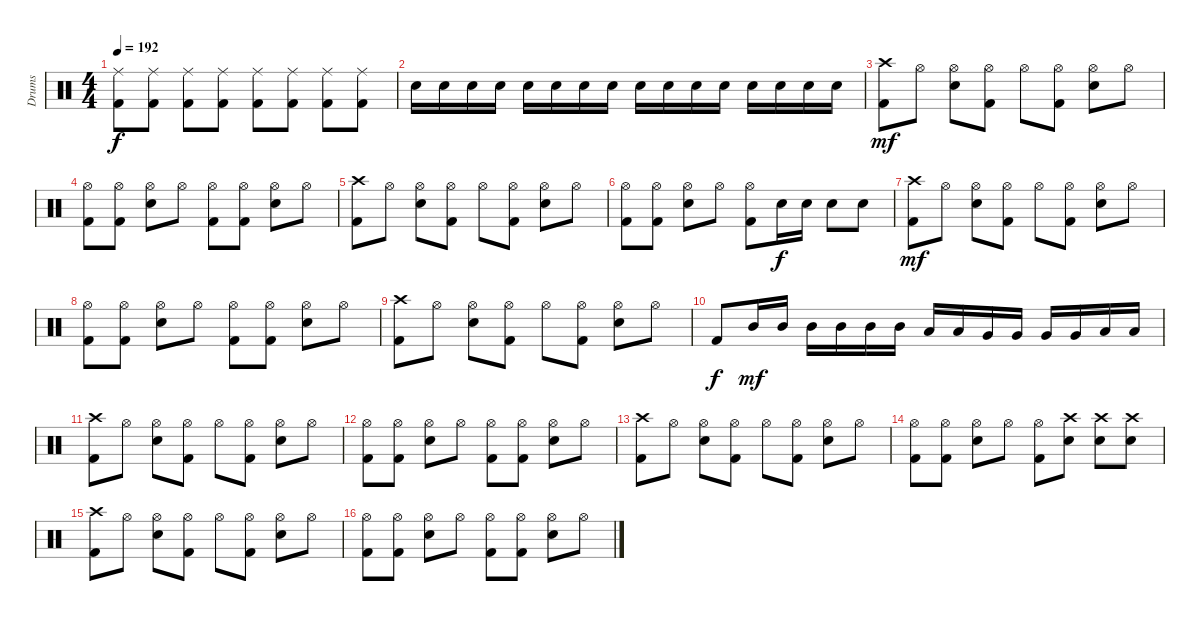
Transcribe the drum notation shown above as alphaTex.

\track ("Drums" "Drums") {instrument percussion}
\staff {score}
\articulation defaults
\ts (4 4)
\tempo 192
\clef neutral
\ks c
("Ride (middle)" "Kick (hit) 2").8{dy f} ("Ride (middle)" "Kick (hit) 2").8 ("Ride (middle)" "Kick (hit) 2").8 ("Ride (middle)" "Kick (hit) 2").8 ("Ride (middle)" "Kick (hit) 2").8 ("Ride (middle)" "Kick (hit) 2").8 ("Ride (middle)" "Kick (hit) 2").8 ("Ride (middle)" "Kick (hit) 2").8 |
"Snare (hit) 2".16 "Snare (hit) 2".16 "Snare (hit) 2".16 "Snare (hit) 2".16 "Snare (hit) 2".16 "Snare (hit) 2".16 "Snare (hit) 2".16 "Snare (hit) 2".16 "Snare (hit) 2".16 "Snare (hit) 2".16 "Snare (hit) 2".16 "Snare (hit) 2".16 "Snare (hit) 2".16 "Snare (hit) 2".16 "Snare (hit) 2".16 "Snare (hit) 2".16 |
("Crash high (hit)" "Kick (hit) 2").8{dy mf} "Hi-Hat (open)".8 ("Hi-Hat (open)" "Snare (hit) 2").8 ("Hi-Hat (open)" "Kick (hit) 2").8 "Hi-Hat (open)".8 ("Hi-Hat (open)" "Kick (hit) 2").8 ("Hi-Hat (open)" "Snare (hit) 2").8 "Hi-Hat (open)".8 |
("Hi-Hat (open)" "Kick (hit) 2").8 ("Hi-Hat (open)" "Kick (hit) 2").8 ("Hi-Hat (open)" "Snare (hit) 2").8 "Hi-Hat (open)".8 ("Hi-Hat (open)" "Kick (hit) 2").8 ("Hi-Hat (open)" "Kick (hit) 2").8 ("Hi-Hat (open)" "Snare (hit) 2").8 "Hi-Hat (open)".8 |
("Crash high (hit)" "Kick (hit) 2").8 "Hi-Hat (open)".8 ("Hi-Hat (open)" "Snare (hit) 2").8 ("Hi-Hat (open)" "Kick (hit) 2").8 "Hi-Hat (open)".8 ("Hi-Hat (open)" "Kick (hit) 2").8 ("Hi-Hat (open)" "Snare (hit) 2").8 "Hi-Hat (open)".8 |
("Hi-Hat (open)" "Kick (hit) 2").8 ("Hi-Hat (open)" "Kick (hit) 2").8 ("Hi-Hat (open)" "Snare (hit) 2").8 "Hi-Hat (open)".8 ("Hi-Hat (open)" "Kick (hit) 2").8 "Snare (hit) 2".16{dy f} "Snare (hit) 2".16 "Snare (hit) 2".8 "Snare (hit) 2".8 |
("Crash high (hit)" "Kick (hit) 2").8{dy mf} "Hi-Hat (open)".8 ("Hi-Hat (open)" "Snare (hit) 2").8 ("Hi-Hat (open)" "Kick (hit) 2").8 "Hi-Hat (open)".8 ("Hi-Hat (open)" "Kick (hit) 2").8 ("Hi-Hat (open)" "Snare (hit) 2").8 "Hi-Hat (open)".8 |
("Hi-Hat (open)" "Kick (hit) 2").8 ("Hi-Hat (open)" "Kick (hit) 2").8 ("Hi-Hat (open)" "Snare (hit) 2").8 "Hi-Hat (open)".8 ("Hi-Hat (open)" "Kick (hit) 2").8 ("Hi-Hat (open)" "Kick (hit) 2").8 ("Hi-Hat (open)" "Snare (hit) 2").8 "Hi-Hat (open)".8 |
("Crash high (hit)" "Kick (hit) 2").8 "Hi-Hat (open)".8 ("Hi-Hat (open)" "Snare (hit) 2").8 ("Hi-Hat (open)" "Kick (hit) 2").8 "Hi-Hat (open)".8 ("Hi-Hat (open)" "Kick (hit) 2").8 ("Hi-Hat (open)" "Snare (hit) 2").8 "Hi-Hat (open)".8 |
"Kick (hit) 2".8{dy f} "Mid Tom (hit)".16{dy mf} "Mid Tom (hit)".16 "Mid Tom (hit)".16 "Mid Tom (hit)".16 "Mid Tom (hit)".16 "Mid Tom (hit)".16 "Low Tom (hit)".16 "Low Tom (hit)".16 "Very Low Tom (hit)".16 "Very Low Tom (hit)".16 "Very Low Tom (hit)".16 "Very Low Tom (hit)".16 "Low Floor Tom (hit)".16 "Low Floor Tom (hit)".16 |
("Crash high (hit)" "Kick (hit) 2").8 "Hi-Hat (open)".8 ("Hi-Hat (open)" "Snare (hit) 2").8 ("Hi-Hat (open)" "Kick (hit) 2").8 "Hi-Hat (open)".8 ("Hi-Hat (open)" "Kick (hit) 2").8 ("Hi-Hat (open)" "Snare (hit) 2").8 "Hi-Hat (open)".8 |
("Hi-Hat (open)" "Kick (hit) 2").8 ("Hi-Hat (open)" "Kick (hit) 2").8 ("Hi-Hat (open)" "Snare (hit) 2").8 "Hi-Hat (open)".8 ("Hi-Hat (open)" "Kick (hit) 2").8 ("Hi-Hat (open)" "Kick (hit) 2").8 ("Hi-Hat (open)" "Snare (hit) 2").8 "Hi-Hat (open)".8 |
("Crash high (hit)" "Kick (hit) 2").8 "Hi-Hat (open)".8 ("Hi-Hat (open)" "Snare (hit) 2").8 ("Hi-Hat (open)" "Kick (hit) 2").8 "Hi-Hat (open)".8 ("Hi-Hat (open)" "Kick (hit) 2").8 ("Hi-Hat (open)" "Snare (hit) 2").8 "Hi-Hat (open)".8 |
("Hi-Hat (open)" "Kick (hit) 2").8 ("Hi-Hat (open)" "Kick (hit) 2").8 ("Hi-Hat (open)" "Snare (hit) 2").8 "Hi-Hat (open)".8 ("Hi-Hat (open)" "Kick (hit) 2").8 ("Crash high (hit)" "Snare (hit) 2").8 ("Crash high (hit)" "Snare (hit) 2").8 ("Crash high (hit)" "Snare (hit) 2").8 |
("Crash high (hit)" "Kick (hit) 2").8 "Hi-Hat (open)".8 ("Hi-Hat (open)" "Snare (hit) 2").8 ("Hi-Hat (open)" "Kick (hit) 2").8 "Hi-Hat (open)".8 ("Hi-Hat (open)" "Kick (hit) 2").8 ("Hi-Hat (open)" "Snare (hit) 2").8 "Hi-Hat (open)".8 |
("Hi-Hat (open)" "Kick (hit) 2").8 ("Hi-Hat (open)" "Kick (hit) 2").8 ("Hi-Hat (open)" "Snare (hit) 2").8 "Hi-Hat (open)".8 ("Hi-Hat (open)" "Kick (hit) 2").8 ("Hi-Hat (open)" "Kick (hit) 2").8 ("Hi-Hat (open)" "Snare (hit) 2").8 "Hi-Hat (open)".8
